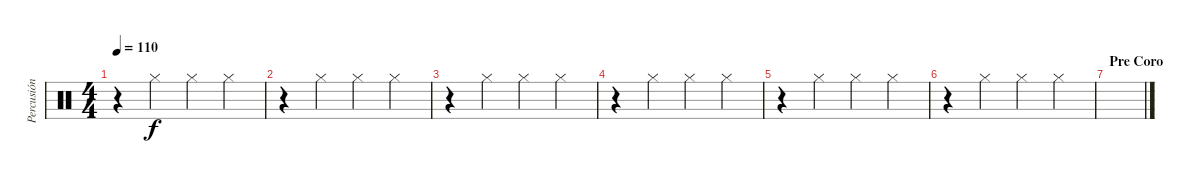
\track ("Percusión" "Percusión") {instrument percussion}
\staff {score}
\articulation defaults
\ts (4 4)
\tempo 110
\clef neutral
\ks c
r.4{dy f} "Hi-Hat (closed)".4 "Hi-Hat (closed)".4 "Hi-Hat (closed)".4 |
r.4 "Hi-Hat (closed)".4 "Hi-Hat (closed)".4 "Hi-Hat (closed)".4 |
r.4 "Hi-Hat (closed)".4 "Hi-Hat (closed)".4 "Hi-Hat (closed)".4 |
r.4 "Hi-Hat (closed)".4 "Hi-Hat (closed)".4 "Hi-Hat (closed)".4 |
r.4 "Hi-Hat (closed)".4 "Hi-Hat (closed)".4 "Hi-Hat (closed)".4 |
r.4 "Hi-Hat (closed)".4 "Hi-Hat (closed)".4 "Hi-Hat (closed)".4 |
\section ("" "Pre Coro")
